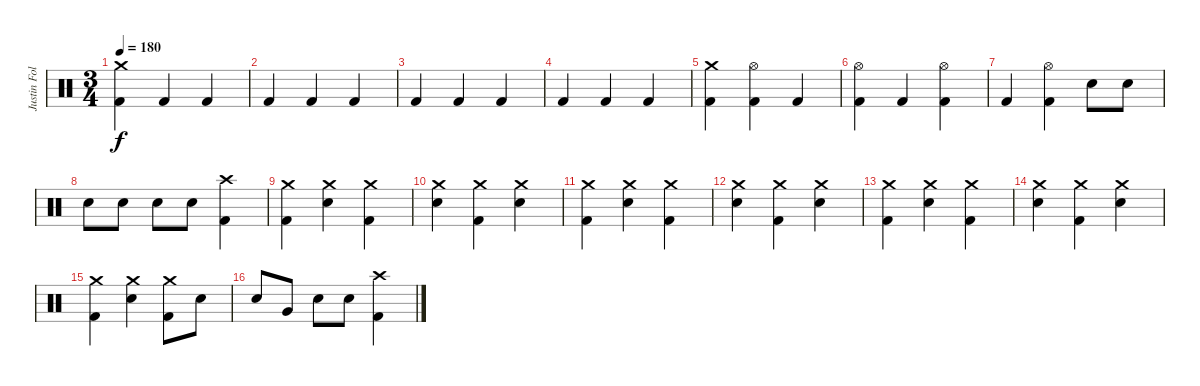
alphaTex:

\track ("Justin Foley" "Justin Fol") {instrument percussion}
\staff {score}
\articulation defaults
\ts (3 4)
\tempo 180
\clef neutral
\ks c
("Crash medium (hit)" "Kick (hit) 2").4{dy f} "Kick (hit) 2".4 "Kick (hit) 2".4 |
"Kick (hit) 2".4 "Kick (hit) 2".4 "Kick (hit) 2".4 |
"Kick (hit) 2".4 "Kick (hit) 2".4 "Kick (hit) 2".4 |
"Kick (hit) 2".4 "Kick (hit) 2".4 "Kick (hit) 2".4 |
("Crash medium (hit)" "Kick (hit) 2").4 ("Hi-Hat (open)" "Kick (hit) 2").4 "Kick (hit) 2".4 |
("Hi-Hat (open)" "Kick (hit) 2").4 "Kick (hit) 2".4 ("Hi-Hat (open)" "Kick (hit) 2").4 |
"Kick (hit) 2".4 ("Hi-Hat (open)" "Kick (hit) 2").4 "Electric Snare (hit)".8 "Electric Snare (hit)".8 |
"Electric Snare (hit)".8 "Electric Snare (hit)".8 "Electric Snare (hit)".8 "Electric Snare (hit)".8 ("Crash high (hit)" "Kick (hit) 2").4 |
("Crash medium (hit)" "Kick (hit) 2").4 ("Crash medium (hit)" "Electric Snare (hit)").4 ("Crash medium (hit)" "Kick (hit) 2").4 |
("Crash medium (hit)" "Electric Snare (hit)").4 ("Crash medium (hit)" "Kick (hit) 2").4 ("Crash medium (hit)" "Electric Snare (hit)").4 |
("Crash medium (hit)" "Kick (hit) 2").4 ("Crash medium (hit)" "Electric Snare (hit)").4 ("Crash medium (hit)" "Kick (hit) 2").4 |
("Crash medium (hit)" "Electric Snare (hit)").4 ("Crash medium (hit)" "Kick (hit) 2").4 ("Crash medium (hit)" "Electric Snare (hit)").4 |
("Crash medium (hit)" "Kick (hit) 2").4 ("Crash medium (hit)" "Electric Snare (hit)").4 ("Crash medium (hit)" "Kick (hit) 2").4 |
("Crash medium (hit)" "Electric Snare (hit)").4 ("Crash medium (hit)" "Kick (hit) 2").4 ("Crash medium (hit)" "Electric Snare (hit)").4 |
("Crash medium (hit)" "Kick (hit) 2").4 ("Crash medium (hit)" "Electric Snare (hit)").4 ("Crash medium (hit)" "Kick (hit) 2").8 "Electric Snare (hit)".8 |
"Electric Snare (hit)".8 "Very Low Tom (hit)".8 "Electric Snare (hit)".8 "Electric Snare (hit)".8 ("Crash high (hit)" "Kick (hit) 2").4
